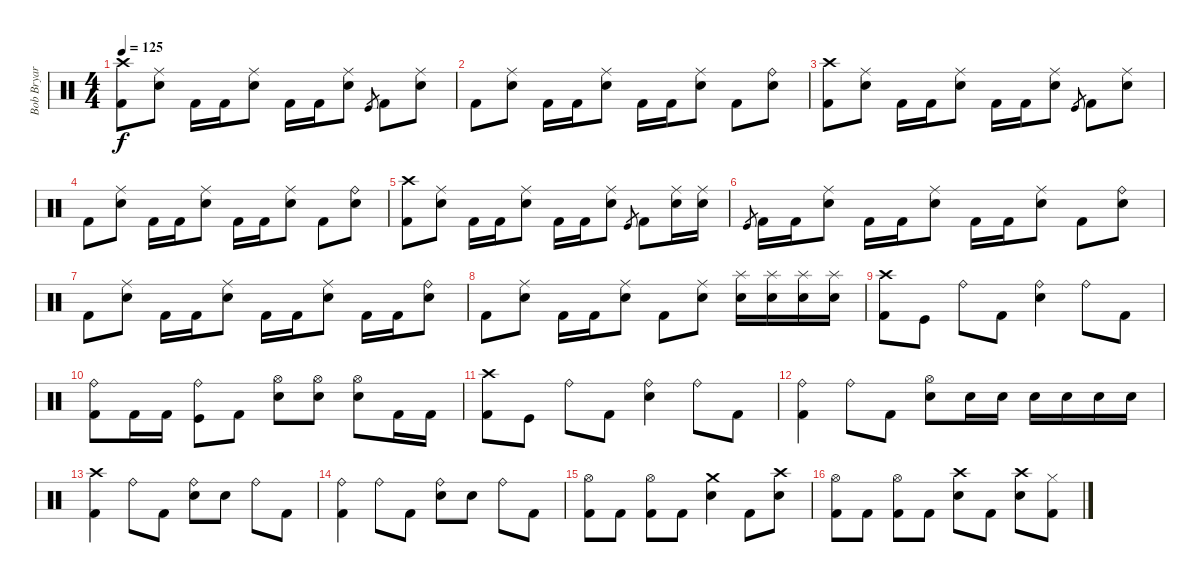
\track ("Bob Bryar" "Bob Bryar") {instrument percussion}
\staff {score}
\articulation defaults
\ts (4 4)
\tempo 125
\clef neutral
\ks c
("Crash high (hit)" "Kick (hit) 2").8{dy f} ("Ride (middle)" "Snare (hit) 2").8 "Kick (hit) 2".16 "Kick (hit) 2".16 ("Ride (middle)" "Snare (hit) 2").8 "Kick (hit) 2".16 "Kick (hit) 2".16 ("Ride (middle)" "Snare (hit) 2").8 "Kick (hit)".8{gr} "Kick (hit) 2".8 ("Ride (middle)" "Snare (hit) 2").8 |
"Kick (hit) 2".8 ("Ride (middle)" "Snare (hit) 2").8 "Kick (hit) 2".16 "Kick (hit) 2".16 ("Ride (middle)" "Snare (hit) 2").8 "Kick (hit) 2".16 "Kick (hit) 2".16 ("Ride (middle)" "Snare (hit) 2").8 "Kick (hit) 2".8 ("Ride (bell)" "Snare (hit) 2").8 |
("Crash high (hit)" "Kick (hit) 2").8 ("Ride (middle)" "Snare (hit) 2").8 "Kick (hit) 2".16 "Kick (hit) 2".16 ("Ride (middle)" "Snare (hit) 2").8 "Kick (hit) 2".16 "Kick (hit) 2".16 ("Ride (middle)" "Snare (hit) 2").8 "Kick (hit)".8{gr} "Kick (hit) 2".8 ("Ride (middle)" "Snare (hit) 2").8 |
"Kick (hit) 2".8 ("Ride (middle)" "Snare (hit) 2").8 "Kick (hit) 2".16 "Kick (hit) 2".16 ("Ride (middle)" "Snare (hit) 2").8 "Kick (hit) 2".16 "Kick (hit) 2".16 ("Ride (middle)" "Snare (hit) 2").8 "Kick (hit) 2".8 ("Ride (bell)" "Snare (hit) 2").8 |
("Crash high (hit)" "Kick (hit) 2").8 ("Ride (middle)" "Snare (hit) 2").8 "Kick (hit) 2".16 "Kick (hit) 2".16 ("Ride (middle)" "Snare (hit) 2").8 "Kick (hit) 2".16 "Kick (hit) 2".16 ("Ride (middle)" "Snare (hit) 2").8 "Kick (hit)".8{gr} "Kick (hit) 2".8 ("Ride (middle)" "Snare (hit) 2").16 ("Ride (middle)" "Snare (hit) 2").16 |
"Kick (hit)".8{gr} "Kick (hit) 2".16 "Kick (hit) 2".16 ("Ride (middle)" "Snare (hit) 2").8 "Kick (hit) 2".16 "Kick (hit) 2".16 ("Ride (middle)" "Snare (hit) 2").8 "Kick (hit) 2".16 "Kick (hit) 2".16 ("Ride (middle)" "Snare (hit) 2").8 "Kick (hit) 2".8 ("Ride (bell)" "Snare (hit) 2").8 |
"Kick (hit) 2".8 ("Ride (middle)" "Snare (hit) 2").8 "Kick (hit) 2".16 "Kick (hit) 2".16 ("Ride (middle)" "Snare (hit) 2").8 "Kick (hit) 2".16 "Kick (hit) 2".16 ("Ride (middle)" "Snare (hit) 2").8 "Kick (hit) 2".16 "Kick (hit) 2".16 ("Ride (bell)" "Snare (hit) 2").8 |
"Kick (hit) 2".8 ("Ride (middle)" "Snare (hit) 2").8 "Kick (hit) 2".16 "Kick (hit) 2".16 ("Ride (middle)" "Snare (hit) 2").8 "Kick (hit) 2".8 ("Ride (middle)" "Snare (hit) 2").8 ("Splash (hit)" "Snare (hit) 2").16 ("Splash (hit)" "Snare (hit) 2").16 ("Splash (hit)" "Snare (hit) 2").16 ("Splash (hit)" "Snare (hit) 2").16 |
("Kick (hit) 2" "Crash high (hit)").8 "Kick (hit)".8 "Ride (bell)".8 "Kick (hit) 2".8 ("Ride (bell)" "Snare (hit) 2").4 "Ride (bell)".8 "Kick (hit) 2".8 |
("Ride (bell)" "Kick (hit) 2").8 "Kick (hit) 2".16 "Kick (hit) 2".16 ("Ride (bell)" "Kick (hit)").8 "Kick (hit) 2".8 ("Hi-Hat (open)" "Snare (hit) 2").8 ("Hi-Hat (open)" "Snare (hit) 2").8 ("Hi-Hat (open)" "Snare (hit) 2").8 "Kick (hit) 2".16 "Kick (hit) 2".16 |
("Kick (hit) 2" "Crash high (hit)").8 "Kick (hit)".8 "Ride (bell)".8 "Kick (hit) 2".8 ("Ride (bell)" "Snare (hit) 2").4 "Ride (bell)".8 "Kick (hit) 2".8 |
("Ride (bell)" "Kick (hit) 2").4 "Ride (bell)".8 "Kick (hit) 2".8 ("Hi-Hat (open)" "Snare (hit) 2").8 "Snare (hit) 2".16 "Snare (hit) 2".16 "Snare (hit) 2".16 "Snare (hit) 2".16 "Snare (hit) 2".16 "Snare (hit) 2".16 |
("Crash high (hit)" "Kick (hit) 2").4 "Ride (bell)".8 "Kick (hit) 2".8 ("Ride (bell)" "Snare (hit) 2").8 "Snare (hit) 2".8 "Ride (bell)".8 "Kick (hit) 2".8 |
("Ride (bell)" "Kick (hit) 2").4 "Ride (bell)".8 "Kick (hit) 2".8 ("Ride (bell)" "Snare (hit) 2").8 "Snare (hit) 2".8 "Ride (bell)".8 "Kick (hit) 2".8 |
("Hi-Hat (open)" "Kick (hit) 2").8 "Kick (hit) 2".8 ("Hi-Hat (open)" "Kick (hit) 2").8 "Kick (hit) 2".8 ("Crash medium (hit)" "Snare (hit) 2").4 "Kick (hit) 2".8 ("Crash high (hit)" "Snare (hit) 2").8 |
("Hi-Hat (open)" "Kick (hit) 2").8 "Kick (hit) 2".8 ("Hi-Hat (open)" "Kick (hit) 2").8 "Kick (hit) 2".8 ("Crash high (hit)" "Snare (hit) 2").8 "Kick (hit) 2".8 ("Crash high (hit)" "Snare (hit) 2").8 ("Hi-Hat (closed)" "Kick (hit) 2").8
